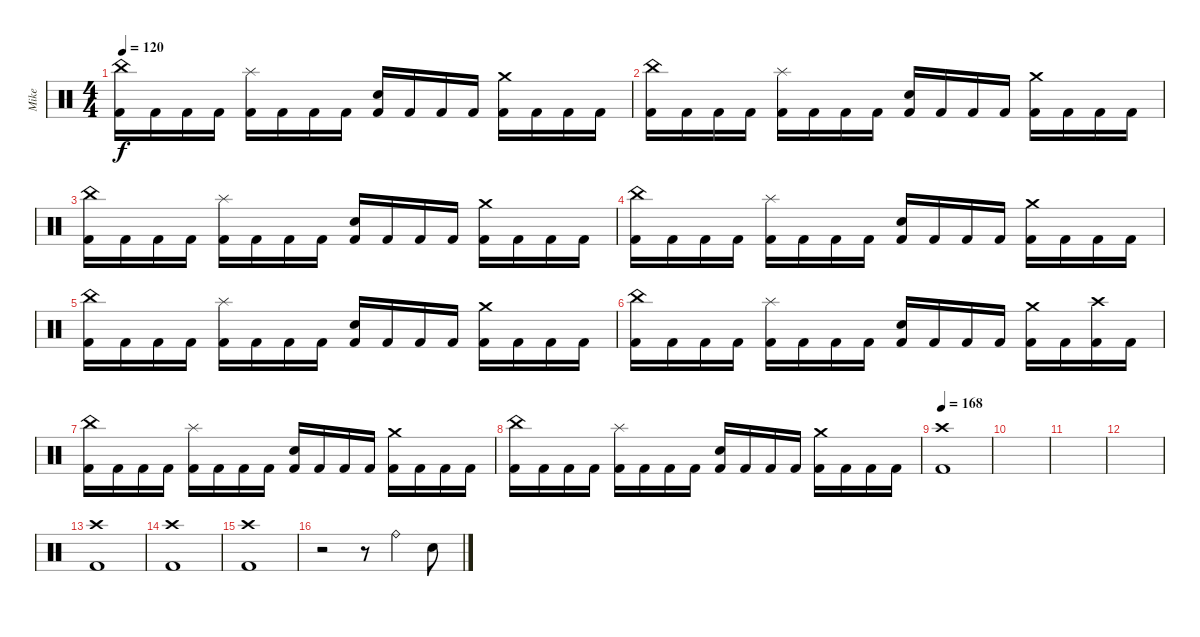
\track ("Mike" "Mike") {instrument percussion}
\staff {score}
\articulation defaults
\ts (4 4)
\tempo 120
\clef neutral
\ks c
("Kick (hit) 2" "China (hit)").16{dy f} "Kick (hit) 2".16 "Kick (hit) 2".16 "Kick (hit) 2".16 ("Kick (hit) 2" "Splash (hit)").16 "Kick (hit) 2".16 "Kick (hit) 2".16 "Kick (hit) 2".16 ("Kick (hit) 2" "Electric Snare (hit)").16 "Kick (hit) 2".16 "Kick (hit) 2".16 "Kick (hit) 2".16 ("Kick (hit) 2" "Crash medium (hit)").16 "Kick (hit) 2".16 "Kick (hit) 2".16 "Kick (hit) 2".16 |
("Kick (hit) 2" "China (hit)").16 "Kick (hit) 2".16 "Kick (hit) 2".16 "Kick (hit) 2".16 ("Kick (hit) 2" "Splash (hit)").16 "Kick (hit) 2".16 "Kick (hit) 2".16 "Kick (hit) 2".16 ("Kick (hit) 2" "Electric Snare (hit)").16 "Kick (hit) 2".16 "Kick (hit) 2".16 "Kick (hit) 2".16 ("Kick (hit) 2" "Crash medium (hit)").16 "Kick (hit) 2".16 "Kick (hit) 2".16 "Kick (hit) 2".16 |
("Kick (hit) 2" "China (hit)").16 "Kick (hit) 2".16 "Kick (hit) 2".16 "Kick (hit) 2".16 ("Kick (hit) 2" "Splash (hit)").16 "Kick (hit) 2".16 "Kick (hit) 2".16 "Kick (hit) 2".16 ("Kick (hit) 2" "Electric Snare (hit)").16 "Kick (hit) 2".16 "Kick (hit) 2".16 "Kick (hit) 2".16 ("Kick (hit) 2" "Crash medium (hit)").16 "Kick (hit) 2".16 "Kick (hit) 2".16 "Kick (hit) 2".16 |
("Kick (hit) 2" "China (hit)").16 "Kick (hit) 2".16 "Kick (hit) 2".16 "Kick (hit) 2".16 ("Kick (hit) 2" "Splash (hit)").16 "Kick (hit) 2".16 "Kick (hit) 2".16 "Kick (hit) 2".16 ("Kick (hit) 2" "Electric Snare (hit)").16 "Kick (hit) 2".16 "Kick (hit) 2".16 "Kick (hit) 2".16 ("Kick (hit) 2" "Crash medium (hit)").16 "Kick (hit) 2".16 "Kick (hit) 2".16 "Kick (hit) 2".16 |
("Kick (hit) 2" "China (hit)").16 "Kick (hit) 2".16 "Kick (hit) 2".16 "Kick (hit) 2".16 ("Kick (hit) 2" "Splash (hit)").16 "Kick (hit) 2".16 "Kick (hit) 2".16 "Kick (hit) 2".16 ("Kick (hit) 2" "Electric Snare (hit)").16 "Kick (hit) 2".16 "Kick (hit) 2".16 "Kick (hit) 2".16 ("Kick (hit) 2" "Crash medium (hit)").16 "Kick (hit) 2".16 "Kick (hit) 2".16 "Kick (hit) 2".16 |
("Kick (hit) 2" "China (hit)").16 "Kick (hit) 2".16 "Kick (hit) 2".16 "Kick (hit) 2".16 ("Kick (hit) 2" "Splash (hit)").16 "Kick (hit) 2".16 "Kick (hit) 2".16 "Kick (hit) 2".16 ("Kick (hit) 2" "Electric Snare (hit)").16 "Kick (hit) 2".16 "Kick (hit) 2".16 "Kick (hit) 2".16 ("Kick (hit) 2" "Crash medium (hit)").16 "Kick (hit) 2".16 ("Kick (hit) 2" "Crash high (hit)").16 "Kick (hit) 2".16 |
("Kick (hit) 2" "China (hit)").16 "Kick (hit) 2".16 "Kick (hit) 2".16 "Kick (hit) 2".16 ("Kick (hit) 2" "Splash (hit)").16 "Kick (hit) 2".16 "Kick (hit) 2".16 "Kick (hit) 2".16 ("Kick (hit) 2" "Electric Snare (hit)").16 "Kick (hit) 2".16 "Kick (hit) 2".16 "Kick (hit) 2".16 ("Kick (hit) 2" "Crash medium (hit)").16 "Kick (hit) 2".16 "Kick (hit) 2".16 "Kick (hit) 2".16 |
("Kick (hit) 2" "China (hit)").16 "Kick (hit) 2".16 "Kick (hit) 2".16 "Kick (hit) 2".16 ("Kick (hit) 2" "Splash (hit)").16 "Kick (hit) 2".16 "Kick (hit) 2".16 "Kick (hit) 2".16 ("Kick (hit) 2" "Electric Snare (hit)").16 "Kick (hit) 2".16 "Kick (hit) 2".16 "Kick (hit) 2".16 ("Kick (hit) 2" "Crash medium (hit)").16 "Kick (hit) 2".16 "Kick (hit) 2".16 "Kick (hit) 2".16 |
\tempo 168
("Kick (hit) 2" "Crash high (hit)").1 |
|
|
|
("Kick (hit) 2" "Crash high (hit)").1 |
("Kick (hit) 2" "Crash high (hit)").1 |
("Kick (hit) 2" "Crash high (hit)").1 |
r.2 r.8 "Ride (bell)".4 "Electric Snare (hit)".8
